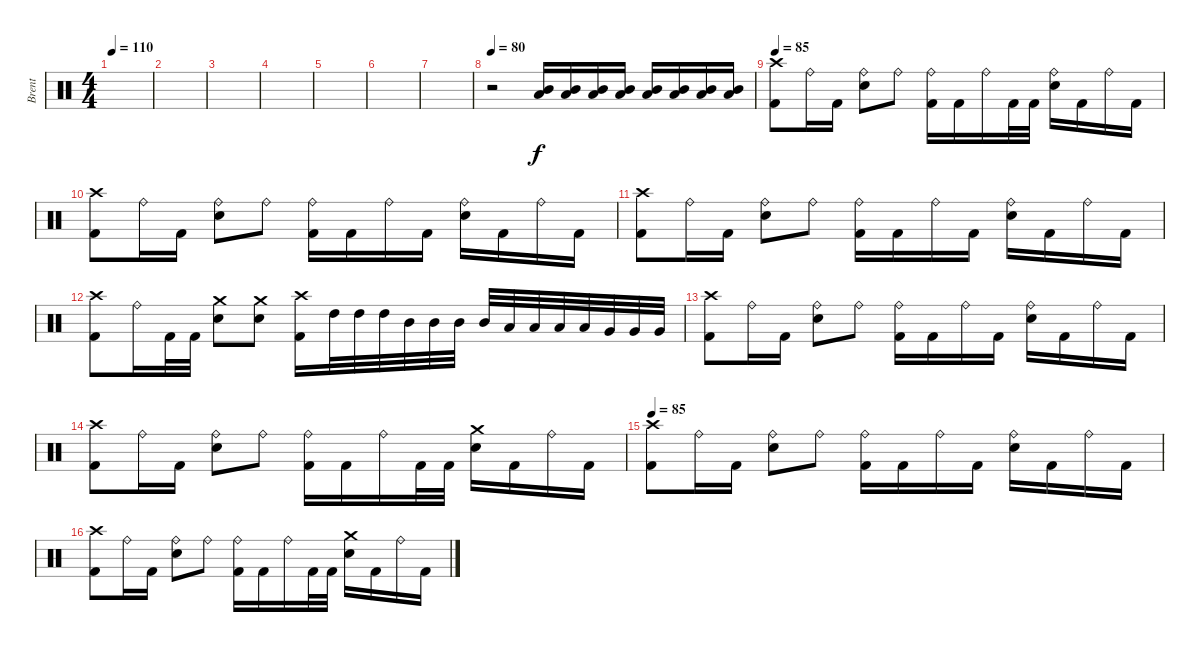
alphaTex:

\track ("Brent" "Brent") {instrument percussion}
\staff {score}
\articulation defaults
\ts (4 4)
\tempo 110
\clef neutral
\ks c
|
|
|
|
|
|
|
\tempo 80
r.2 ("Mid Tom (hit)" "Low Tom (hit)").16 ("Mid Tom (hit)" "Low Tom (hit)").16 ("Mid Tom (hit)" "Low Tom (hit)").16 ("Mid Tom (hit)" "Low Tom (hit)").16 ("Mid Tom (hit)" "Low Tom (hit)").16 ("Mid Tom (hit)" "Low Tom (hit)").16 ("Mid Tom (hit)" "Low Tom (hit)").16 ("Mid Tom (hit)" "Low Tom (hit)").16 |
\tempo 85
("Crash high (hit)" "Kick (hit) 2").8 "Ride (bell)".16 "Kick (hit) 2".16 ("Ride (bell)" "Snare (hit) 2").8 "Ride (bell)".8 ("Ride (bell)" "Kick (hit) 2").16 "Kick (hit) 2".16 "Ride (bell)".16 "Kick (hit) 2".32 "Kick (hit) 2".32 ("Ride (bell)" "Snare (hit) 2").16 "Kick (hit) 2".16 "Ride (bell)".16 "Kick (hit) 2".16 |
("Crash high (hit)" "Kick (hit) 2").8 "Ride (bell)".16 "Kick (hit) 2".16 ("Ride (bell)" "Snare (hit) 2").8 "Ride (bell)".8 ("Ride (bell)" "Kick (hit) 2").16 "Kick (hit) 2".16 "Ride (bell)".16 "Kick (hit) 2".16 ("Ride (bell)" "Snare (hit) 2").16 "Kick (hit) 2".16 "Ride (bell)".16 "Kick (hit) 2".16 |
("Crash high (hit)" "Kick (hit) 2").8 "Ride (bell)".16 "Kick (hit) 2".16 ("Ride (bell)" "Snare (hit) 2").8 "Ride (bell)".8 ("Ride (bell)" "Kick (hit) 2").16 "Kick (hit) 2".16 "Ride (bell)".16 "Kick (hit) 2".16 ("Ride (bell)" "Snare (hit) 2").16 "Kick (hit) 2".16 "Ride (bell)".16 "Kick (hit) 2".16 |
("Crash high (hit)" "Kick (hit) 2").8 "Ride (bell)".16 "Kick (hit) 2".32 "Kick (hit) 2".32 ("Crash medium (hit)" "Snare (hit) 2").8 ("Crash medium (hit)" "Snare (hit) 2").8 ("Crash high (hit)" "Kick (hit) 2").16 "High Tom (hit)".32 "High Tom (hit)".32 "High Tom (hit)".32 "Mid Tom (hit)".32 "Mid Tom (hit)".32 "Mid Tom (hit)".32 "Mid Tom (hit)".32 "Low Tom (hit)".32 "Low Tom (hit)".32 "Low Tom (hit)".32 "Low Tom (hit)".32 "Very Low Tom (hit)".32 "Very Low Tom (hit)".32 "Very Low Tom (hit)".32 |
("Crash high (hit)" "Kick (hit) 2").8 "Ride (bell)".16 "Kick (hit) 2".16 ("Ride (bell)" "Snare (hit) 2").8 "Ride (bell)".8 ("Ride (bell)" "Kick (hit) 2").16 "Kick (hit) 2".16 "Ride (bell)".16 "Kick (hit) 2".16 ("Ride (bell)" "Snare (hit) 2").16 "Kick (hit) 2".16 "Ride (bell)".16 "Kick (hit) 2".16 |
("Crash high (hit)" "Kick (hit) 2").8 "Ride (bell)".16 "Kick (hit) 2".16 ("Ride (bell)" "Snare (hit) 2").8 "Ride (bell)".8 ("Ride (bell)" "Kick (hit) 2").16 "Kick (hit) 2".16 "Ride (bell)".16 "Kick (hit) 2".32 "Kick (hit) 2".32 ("Crash medium (hit)" "Snare (hit) 2").16 "Kick (hit) 2".16 "Ride (bell)".16 "Kick (hit) 2".16 |
\tempo 85
("Crash high (hit)" "Kick (hit) 2").8 "Ride (bell)".16 "Kick (hit) 2".16 ("Ride (bell)" "Snare (hit) 2").8 "Ride (bell)".8 ("Ride (bell)" "Kick (hit) 2").16 "Kick (hit) 2".16 "Ride (bell)".16 "Kick (hit) 2".16 ("Ride (bell)" "Snare (hit) 2").16 "Kick (hit) 2".16 "Ride (bell)".16 "Kick (hit) 2".16 |
("Crash high (hit)" "Kick (hit) 2").8 "Ride (bell)".16 "Kick (hit) 2".16 ("Ride (bell)" "Snare (hit) 2").8 "Ride (bell)".8 ("Ride (bell)" "Kick (hit) 2").16 "Kick (hit) 2".16 "Ride (bell)".16 "Kick (hit) 2".32 "Kick (hit) 2".32 ("Crash medium (hit)" "Snare (hit) 2").16 "Kick (hit) 2".16 "Ride (bell)".16 "Kick (hit) 2".16
